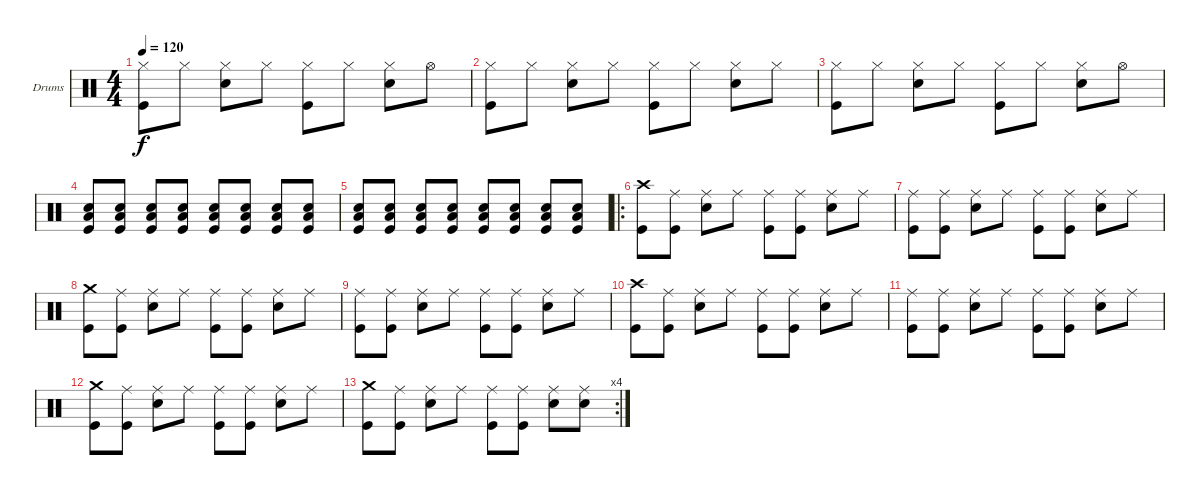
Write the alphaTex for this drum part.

\bracketExtendMode groupsimilarinstruments
\firstSystemTrackNameOrientation horizontal
\otherSystemsTrackNameOrientation horizontal
\track ("Drumkit" "Drums") {instrument percussion}
\staff {score}
\articulation defaults
\ts (4 4)
\tempo 120
\clef neutral
\ks c
("Kick (hit)" "Hi-Hat (closed)").8{dy f} "Hi-Hat (closed)".8 ("Snare (hit) 2" "Hi-Hat (closed)").8 "Hi-Hat (closed)".8 ("Kick (hit)" "Hi-Hat (closed)").8 "Hi-Hat (closed)".8 ("Snare (hit) 2" "Hi-Hat (closed)").8 "Hi-Hat (open)".8 |
("Kick (hit)" "Hi-Hat (closed)").8 "Hi-Hat (closed)".8 ("Snare (hit) 2" "Hi-Hat (closed)").8 "Hi-Hat (closed)".8 ("Kick (hit)" "Hi-Hat (closed)").8 "Hi-Hat (closed)".8 ("Snare (hit) 2" "Hi-Hat (closed)").8 "Hi-Hat (closed)".8 |
("Kick (hit)" "Hi-Hat (closed)").8 "Hi-Hat (closed)".8 ("Snare (hit) 2" "Hi-Hat (closed)").8 "Hi-Hat (closed)".8 ("Kick (hit)" "Hi-Hat (closed)").8 "Hi-Hat (closed)".8 ("Snare (hit) 2" "Hi-Hat (closed)").8 "Hi-Hat (open)".8 |
("Snare (hit) 2" "Kick (hit)" "Low Tom (hit)").8 ("Snare (hit) 2" "Kick (hit)" "Low Tom (hit)").8 ("Snare (hit) 2" "Kick (hit)" "Low Tom (hit)").8 ("Snare (hit) 2" "Kick (hit)" "Low Tom (hit)").8 ("Snare (hit) 2" "Kick (hit)" "Low Tom (hit)").8 ("Snare (hit) 2" "Kick (hit)" "Low Tom (hit)").8 ("Snare (hit) 2" "Kick (hit)" "Low Tom (hit)").8 ("Snare (hit) 2" "Kick (hit)" "Low Tom (hit)").8 |
("Snare (hit) 2" "Low Tom (hit)" "Kick (hit)").8 ("Snare (hit) 2" "Low Tom (hit)" "Kick (hit)").8 ("Snare (hit) 2" "Low Tom (hit)" "Kick (hit)").8 ("Snare (hit) 2" "Low Tom (hit)" "Kick (hit)").8 ("Snare (hit) 2" "Low Tom (hit)" "Kick (hit)").8 ("Snare (hit) 2" "Low Tom (hit)" "Kick (hit)").8 ("Snare (hit) 2" "Low Tom (hit)" "Kick (hit)").8 ("Snare (hit) 2" "Low Tom (hit)" "Kick (hit)").8 |
\ro
("Kick (hit)" "Crash high (hit)").8 ("Ride (middle)" "Kick (hit)").8 ("Ride (middle)" "Snare (hit) 2").8 "Ride (middle)".8 ("Ride (middle)" "Kick (hit)").8 ("Ride (middle)" "Kick (hit)").8 ("Ride (middle)" "Snare (hit) 2").8 "Ride (middle)".8 |
("Ride (middle)" "Kick (hit)").8 ("Ride (middle)" "Kick (hit)").8 ("Ride (middle)" "Snare (hit) 2").8 "Ride (middle)".8 ("Ride (middle)" "Kick (hit)").8 ("Ride (middle)" "Kick (hit)").8 ("Ride (middle)" "Snare (hit) 2").8 "Ride (middle)".8 |
("Kick (hit)" "Crash medium (hit)").8 ("Ride (middle)" "Kick (hit)").8 ("Ride (middle)" "Snare (hit) 2").8 "Ride (middle)".8 ("Ride (middle)" "Kick (hit)").8 ("Ride (middle)" "Kick (hit)").8 ("Ride (middle)" "Snare (hit) 2").8 "Ride (middle)".8 |
("Ride (middle)" "Kick (hit)").8 ("Ride (middle)" "Kick (hit)").8 ("Ride (middle)" "Snare (hit) 2").8 "Ride (middle)".8 ("Ride (middle)" "Kick (hit)").8 ("Ride (middle)" "Kick (hit)").8 ("Ride (middle)" "Snare (hit) 2").8 "Ride (middle)".8 |
("Kick (hit)" "Crash high (hit)").8 ("Ride (middle)" "Kick (hit)").8 ("Ride (middle)" "Snare (hit) 2").8 "Ride (middle)".8 ("Ride (middle)" "Kick (hit)").8 ("Ride (middle)" "Kick (hit)").8 ("Ride (middle)" "Snare (hit) 2").8 "Ride (middle)".8 |
("Ride (middle)" "Kick (hit)").8 ("Ride (middle)" "Kick (hit)").8 ("Ride (middle)" "Snare (hit) 2").8 "Ride (middle)".8 ("Ride (middle)" "Kick (hit)").8 ("Ride (middle)" "Kick (hit)").8 ("Ride (middle)" "Snare (hit) 2").8 "Ride (middle)".8 |
("Kick (hit)" "Crash medium (hit)").8 ("Ride (middle)" "Kick (hit)").8 ("Ride (middle)" "Snare (hit) 2").8 "Ride (middle)".8 ("Ride (middle)" "Kick (hit)").8 ("Ride (middle)" "Kick (hit)").8 ("Ride (middle)" "Snare (hit) 2").8 "Ride (middle)".8 |
\rc 4
("Kick (hit)" "Crash medium (hit)").8 ("Ride (middle)" "Kick (hit)").8 ("Ride (middle)" "Snare (hit) 2").8 "Ride (middle)".8 ("Ride (middle)" "Kick (hit)").8 ("Ride (middle)" "Kick (hit)").8 ("Ride (middle)" "Snare (hit) 2").8 ("Ride (middle)" "Snare (hit) 2").8
